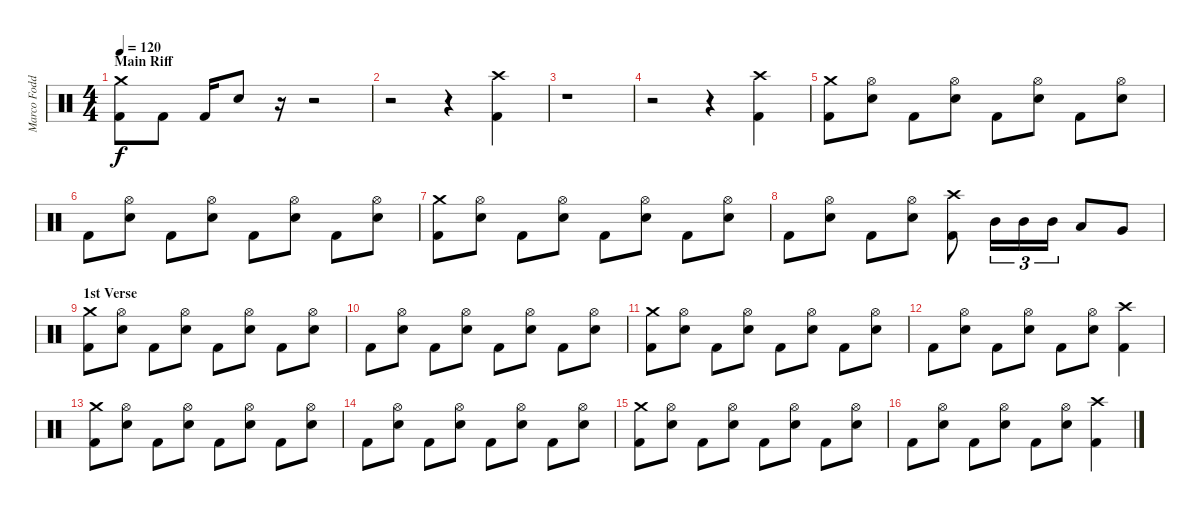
\track ("Marco Foddis " "Marco Fodd") {instrument percussion}
\staff {score}
\articulation defaults
\ts (4 4)
\section ("" "Main Riff")
\tempo 120
\clef neutral
\ks c
("Crash medium (hit)" "Kick (hit) 2").8{dy f} "Kick (hit) 2".8 "Kick (hit) 2".16 "Electric Snare (hit)".8 r.16 r.2 |
r.2 r.4 ("Crash high (hit)" "Kick (hit) 2").4 |
r.1 |
r.2 r.4 ("Crash high (hit)" "Kick (hit) 2").4 |
("Crash medium (hit)" "Kick (hit) 2").8 ("Hi-Hat (open)" "Electric Snare (hit)").8 "Kick (hit) 2".8 ("Hi-Hat (open)" "Electric Snare (hit)").8 "Kick (hit) 2".8 ("Hi-Hat (open)" "Electric Snare (hit)").8 "Kick (hit) 2".8 ("Hi-Hat (open)" "Electric Snare (hit)").8 |
"Kick (hit) 2".8 ("Hi-Hat (open)" "Electric Snare (hit)").8 "Kick (hit) 2".8 ("Hi-Hat (open)" "Electric Snare (hit)").8 "Kick (hit) 2".8 ("Hi-Hat (open)" "Electric Snare (hit)").8 "Kick (hit) 2".8 ("Hi-Hat (open)" "Electric Snare (hit)").8 |
("Crash medium (hit)" "Kick (hit) 2").8 ("Hi-Hat (open)" "Electric Snare (hit)").8 "Kick (hit) 2".8 ("Hi-Hat (open)" "Electric Snare (hit)").8 "Kick (hit) 2".8 ("Hi-Hat (open)" "Electric Snare (hit)").8 "Kick (hit) 2".8 ("Hi-Hat (open)" "Electric Snare (hit)").8 |
"Kick (hit) 2".8 ("Hi-Hat (open)" "Electric Snare (hit)").8 "Kick (hit) 2".8 ("Hi-Hat (open)" "Electric Snare (hit)").8 ("Crash high (hit)" "Kick (hit) 2").8 "Mid Tom (hit)".16{tu (3 2)} "Mid Tom (hit)".16{tu (3 2)} "Mid Tom (hit)".16{tu (3 2)} "Low Tom (hit)".8 "Very Low Tom (hit)".8 |
\section ("" "1st Verse")
("Crash medium (hit)" "Kick (hit) 2").8 ("Hi-Hat (open)" "Electric Snare (hit)").8 "Kick (hit) 2".8 ("Hi-Hat (open)" "Electric Snare (hit)").8 "Kick (hit) 2".8 ("Hi-Hat (open)" "Electric Snare (hit)").8 "Kick (hit) 2".8 ("Hi-Hat (open)" "Electric Snare (hit)").8 |
"Kick (hit) 2".8 ("Hi-Hat (open)" "Electric Snare (hit)").8 "Kick (hit) 2".8 ("Hi-Hat (open)" "Electric Snare (hit)").8 "Kick (hit) 2".8 ("Hi-Hat (open)" "Electric Snare (hit)").8 "Kick (hit) 2".8 ("Hi-Hat (open)" "Electric Snare (hit)").8 |
("Crash medium (hit)" "Kick (hit) 2").8 ("Hi-Hat (open)" "Electric Snare (hit)").8 "Kick (hit) 2".8 ("Hi-Hat (open)" "Electric Snare (hit)").8 "Kick (hit) 2".8 ("Hi-Hat (open)" "Electric Snare (hit)").8 "Kick (hit) 2".8 ("Hi-Hat (open)" "Electric Snare (hit)").8 |
"Kick (hit) 2".8 ("Hi-Hat (open)" "Electric Snare (hit)").8 "Kick (hit) 2".8 ("Hi-Hat (open)" "Electric Snare (hit)").8 "Kick (hit) 2".8 ("Hi-Hat (open)" "Electric Snare (hit)").8 ("Crash high (hit)" "Kick (hit) 2").4 |
("Crash medium (hit)" "Kick (hit) 2").8 ("Hi-Hat (open)" "Electric Snare (hit)").8 "Kick (hit) 2".8 ("Hi-Hat (open)" "Electric Snare (hit)").8 "Kick (hit) 2".8 ("Hi-Hat (open)" "Electric Snare (hit)").8 "Kick (hit) 2".8 ("Hi-Hat (open)" "Electric Snare (hit)").8 |
"Kick (hit) 2".8 ("Hi-Hat (open)" "Electric Snare (hit)").8 "Kick (hit) 2".8 ("Hi-Hat (open)" "Electric Snare (hit)").8 "Kick (hit) 2".8 ("Hi-Hat (open)" "Electric Snare (hit)").8 "Kick (hit) 2".8 ("Hi-Hat (open)" "Electric Snare (hit)").8 |
("Crash medium (hit)" "Kick (hit) 2").8 ("Hi-Hat (open)" "Electric Snare (hit)").8 "Kick (hit) 2".8 ("Hi-Hat (open)" "Electric Snare (hit)").8 "Kick (hit) 2".8 ("Hi-Hat (open)" "Electric Snare (hit)").8 "Kick (hit) 2".8 ("Hi-Hat (open)" "Electric Snare (hit)").8 |
"Kick (hit) 2".8 ("Hi-Hat (open)" "Electric Snare (hit)").8 "Kick (hit) 2".8 ("Hi-Hat (open)" "Electric Snare (hit)").8 "Kick (hit) 2".8 ("Hi-Hat (open)" "Electric Snare (hit)").8 ("Crash high (hit)" "Kick (hit) 2").4
